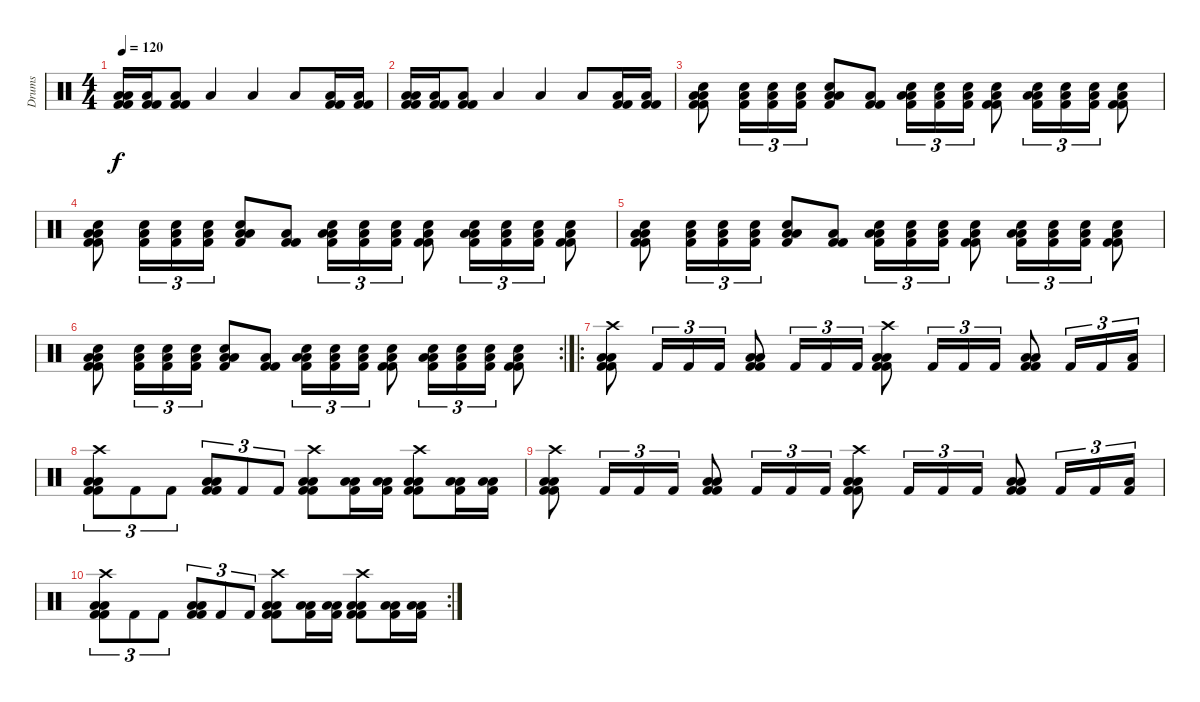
\track ("Drums" "Drums") {instrument percussion}
\staff {score}
\articulation defaults
\ts (4 4)
\tempo 120
\clef neutral
\ks c
("Low Tom (hit)" "Low Floor Tom (hit)" "Kick (hit) 2" "Kick (hit) 2").16{dy f} ("Low Floor Tom (hit)" "Kick (hit) 2" "Kick (hit) 2").16 ("Low Floor Tom (hit)" "Kick (hit) 2" "Kick (hit) 2").8 "Low Tom (hit)".4 "Low Tom (hit)".4 "Low Tom (hit)".8 ("Low Floor Tom (hit)" "Kick (hit) 2" "Kick (hit) 2").16 ("Low Floor Tom (hit)" "Kick (hit) 2" "Kick (hit) 2").16 |
("Low Tom (hit)" "Low Floor Tom (hit)" "Kick (hit) 2" "Kick (hit) 2").16 ("Low Floor Tom (hit)" "Kick (hit) 2" "Kick (hit) 2").16 ("Low Floor Tom (hit)" "Kick (hit) 2" "Kick (hit) 2").8 "Low Tom (hit)".4 "Low Tom (hit)".4 "Low Tom (hit)".8 ("Low Floor Tom (hit)" "Kick (hit) 2" "Kick (hit) 2").16 ("Low Floor Tom (hit)" "Kick (hit) 2" "Kick (hit) 2").16 |
("Snare (hit) 2" "Low Tom (hit)" "Low Floor Tom (hit)" "Kick (hit) 2" "Kick (hit) 2").8 ("Snare (hit) 2" "Low Floor Tom (hit)" "Kick (hit) 2").16{tu (3 2)} ("Snare (hit) 2" "Low Floor Tom (hit)" "Kick (hit) 2").16{tu (3 2)} ("Snare (hit) 2" "Low Floor Tom (hit)" "Kick (hit) 2").16{tu (3 2)} ("Snare (hit) 2" "Low Tom (hit)" "Low Floor Tom (hit)" "Kick (hit) 2").8 ("Low Floor Tom (hit)" "Kick (hit) 2" "Kick (hit) 2").8 ("Snare (hit) 2" "Low Tom (hit)" "Low Floor Tom (hit)" "Kick (hit) 2").16{tu (3 2)} ("Snare (hit) 2" "Low Floor Tom (hit)" "Kick (hit) 2").16{tu (3 2)} ("Snare (hit) 2" "Low Floor Tom (hit)" "Kick (hit) 2").16{tu (3 2)} ("Snare (hit) 2" "Low Floor Tom (hit)" "Kick (hit) 2" "Kick (hit) 2").8 ("Snare (hit) 2" "Low Tom (hit)" "Low Floor Tom (hit)" "Kick (hit) 2").16{tu (3 2)} ("Snare (hit) 2" "Low Floor Tom (hit)" "Kick (hit) 2").16{tu (3 2)} ("Snare (hit) 2" "Low Floor Tom (hit)" "Kick (hit) 2").16{tu (3 2)} ("Snare (hit) 2" "Low Floor Tom (hit)" "Kick (hit) 2" "Kick (hit) 2").8 |
("Snare (hit) 2" "Low Tom (hit)" "Low Floor Tom (hit)" "Kick (hit) 2" "Kick (hit) 2").8 ("Snare (hit) 2" "Low Floor Tom (hit)" "Kick (hit) 2").16{tu (3 2)} ("Snare (hit) 2" "Low Floor Tom (hit)" "Kick (hit) 2").16{tu (3 2)} ("Snare (hit) 2" "Low Floor Tom (hit)" "Kick (hit) 2").16{tu (3 2)} ("Snare (hit) 2" "Low Tom (hit)" "Low Floor Tom (hit)" "Kick (hit) 2").8 ("Low Floor Tom (hit)" "Kick (hit) 2" "Kick (hit) 2").8 ("Snare (hit) 2" "Low Tom (hit)" "Low Floor Tom (hit)" "Kick (hit) 2").16{tu (3 2)} ("Snare (hit) 2" "Low Floor Tom (hit)" "Kick (hit) 2").16{tu (3 2)} ("Snare (hit) 2" "Low Floor Tom (hit)" "Kick (hit) 2").16{tu (3 2)} ("Snare (hit) 2" "Low Floor Tom (hit)" "Kick (hit) 2" "Kick (hit) 2").8 ("Snare (hit) 2" "Low Tom (hit)" "Low Floor Tom (hit)" "Kick (hit) 2").16{tu (3 2)} ("Snare (hit) 2" "Low Floor Tom (hit)" "Kick (hit) 2").16{tu (3 2)} ("Snare (hit) 2" "Low Floor Tom (hit)" "Kick (hit) 2").16{tu (3 2)} ("Snare (hit) 2" "Low Floor Tom (hit)" "Kick (hit) 2" "Kick (hit) 2").8 |
("Snare (hit) 2" "Low Tom (hit)" "Low Floor Tom (hit)" "Kick (hit) 2" "Kick (hit) 2").8 ("Snare (hit) 2" "Low Floor Tom (hit)" "Kick (hit) 2").16{tu (3 2)} ("Snare (hit) 2" "Low Floor Tom (hit)" "Kick (hit) 2").16{tu (3 2)} ("Snare (hit) 2" "Low Floor Tom (hit)" "Kick (hit) 2").16{tu (3 2)} ("Snare (hit) 2" "Low Tom (hit)" "Low Floor Tom (hit)" "Kick (hit) 2").8 ("Low Floor Tom (hit)" "Kick (hit) 2" "Kick (hit) 2").8 ("Snare (hit) 2" "Low Tom (hit)" "Low Floor Tom (hit)" "Kick (hit) 2").16{tu (3 2)} ("Snare (hit) 2" "Low Floor Tom (hit)" "Kick (hit) 2").16{tu (3 2)} ("Snare (hit) 2" "Low Floor Tom (hit)" "Kick (hit) 2").16{tu (3 2)} ("Snare (hit) 2" "Low Floor Tom (hit)" "Kick (hit) 2" "Kick (hit) 2").8 ("Snare (hit) 2" "Low Tom (hit)" "Low Floor Tom (hit)" "Kick (hit) 2").16{tu (3 2)} ("Snare (hit) 2" "Low Floor Tom (hit)" "Kick (hit) 2").16{tu (3 2)} ("Snare (hit) 2" "Low Floor Tom (hit)" "Kick (hit) 2").16{tu (3 2)} ("Snare (hit) 2" "Low Floor Tom (hit)" "Kick (hit) 2" "Kick (hit) 2").8 |
\rc 2
("Snare (hit) 2" "Low Tom (hit)" "Low Floor Tom (hit)" "Kick (hit) 2" "Kick (hit) 2").8 ("Snare (hit) 2" "Low Floor Tom (hit)" "Kick (hit) 2").16{tu (3 2)} ("Snare (hit) 2" "Low Floor Tom (hit)" "Kick (hit) 2").16{tu (3 2)} ("Snare (hit) 2" "Low Floor Tom (hit)" "Kick (hit) 2").16{tu (3 2)} ("Snare (hit) 2" "Low Tom (hit)" "Low Floor Tom (hit)" "Kick (hit) 2").8 ("Low Floor Tom (hit)" "Kick (hit) 2" "Kick (hit) 2").8 ("Snare (hit) 2" "Low Tom (hit)" "Low Floor Tom (hit)" "Kick (hit) 2").16{tu (3 2)} ("Snare (hit) 2" "Low Floor Tom (hit)" "Kick (hit) 2").16{tu (3 2)} ("Snare (hit) 2" "Low Floor Tom (hit)" "Kick (hit) 2").16{tu (3 2)} ("Snare (hit) 2" "Low Floor Tom (hit)" "Kick (hit) 2" "Kick (hit) 2").8 ("Snare (hit) 2" "Low Tom (hit)" "Low Floor Tom (hit)" "Kick (hit) 2").16{tu (3 2)} ("Snare (hit) 2" "Low Floor Tom (hit)" "Kick (hit) 2").16{tu (3 2)} ("Snare (hit) 2" "Low Floor Tom (hit)" "Kick (hit) 2").16{tu (3 2)} ("Snare (hit) 2" "Low Floor Tom (hit)" "Kick (hit) 2" "Kick (hit) 2").8 |
\ro
("Low Tom (hit)" "Crash high (hit)" "Low Floor Tom (hit)" "Kick (hit) 2" "Kick (hit) 2").8 "Kick (hit) 2".16{tu (3 2)} "Kick (hit) 2".16{tu (3 2)} "Kick (hit) 2".16{tu (3 2)} ("Low Tom (hit)" "Low Floor Tom (hit)" "Kick (hit) 2" "Kick (hit) 2").8 "Kick (hit) 2".16{tu (3 2)} "Kick (hit) 2".16{tu (3 2)} "Kick (hit) 2".16{tu (3 2)} ("Low Tom (hit)" "Crash high (hit)" "Low Floor Tom (hit)" "Kick (hit) 2" "Kick (hit) 2").8 "Kick (hit) 2".16{tu (3 2)} "Kick (hit) 2".16{tu (3 2)} "Kick (hit) 2".16{tu (3 2)} ("Low Tom (hit)" "Low Floor Tom (hit)" "Kick (hit) 2" "Kick (hit) 2").8 "Kick (hit) 2".16{tu (3 2)} "Kick (hit) 2".16{tu (3 2)} ("Low Tom (hit)" "Kick (hit) 2").16{tu (3 2)} |
("Low Tom (hit)" "Crash high (hit)" "Low Floor Tom (hit)" "Kick (hit) 2" "Kick (hit) 2").8{tu (3 2)} "Kick (hit) 2".8{tu (3 2)} "Kick (hit) 2".8{tu (3 2)} ("Low Tom (hit)" "Low Floor Tom (hit)" "Kick (hit) 2" "Kick (hit) 2").8{tu (3 2)} "Kick (hit) 2".8{tu (3 2)} "Kick (hit) 2".8{tu (3 2)} ("Low Tom (hit)" "Crash high (hit)" "Low Floor Tom (hit)" "Kick (hit) 2" "Kick (hit) 2").8 ("Low Tom (hit)" "Low Floor Tom (hit)" "Kick (hit) 2").16 ("Low Tom (hit)" "Low Floor Tom (hit)" "Kick (hit) 2").16 ("Low Tom (hit)" "Crash high (hit)" "Low Floor Tom (hit)" "Kick (hit) 2" "Kick (hit) 2").8 ("Low Tom (hit)" "Low Floor Tom (hit)" "Kick (hit) 2").16 ("Low Tom (hit)" "Low Floor Tom (hit)" "Kick (hit) 2").16 |
("Low Tom (hit)" "Crash high (hit)" "Low Floor Tom (hit)" "Kick (hit) 2" "Kick (hit) 2").8 "Kick (hit) 2".16{tu (3 2)} "Kick (hit) 2".16{tu (3 2)} "Kick (hit) 2".16{tu (3 2)} ("Low Tom (hit)" "Low Floor Tom (hit)" "Kick (hit) 2" "Kick (hit) 2").8 "Kick (hit) 2".16{tu (3 2)} "Kick (hit) 2".16{tu (3 2)} "Kick (hit) 2".16{tu (3 2)} ("Low Tom (hit)" "Crash high (hit)" "Low Floor Tom (hit)" "Kick (hit) 2" "Kick (hit) 2").8 "Kick (hit) 2".16{tu (3 2)} "Kick (hit) 2".16{tu (3 2)} "Kick (hit) 2".16{tu (3 2)} ("Low Tom (hit)" "Low Floor Tom (hit)" "Kick (hit) 2" "Kick (hit) 2").8 "Kick (hit) 2".16{tu (3 2)} "Kick (hit) 2".16{tu (3 2)} ("Low Tom (hit)" "Kick (hit) 2").16{tu (3 2)} |
\rc 2
("Low Tom (hit)" "Crash high (hit)" "Low Floor Tom (hit)" "Kick (hit) 2" "Kick (hit) 2").8{tu (3 2)} "Kick (hit) 2".8{tu (3 2)} "Kick (hit) 2".8{tu (3 2)} ("Low Tom (hit)" "Low Floor Tom (hit)" "Kick (hit) 2" "Kick (hit) 2").8{tu (3 2)} "Kick (hit) 2".8{tu (3 2)} "Kick (hit) 2".8{tu (3 2)} ("Low Tom (hit)" "Crash high (hit)" "Low Floor Tom (hit)" "Kick (hit) 2" "Kick (hit) 2").8 ("Low Tom (hit)" "Low Floor Tom (hit)" "Kick (hit) 2").16 ("Low Tom (hit)" "Low Floor Tom (hit)" "Kick (hit) 2").16 ("Low Tom (hit)" "Crash high (hit)" "Low Floor Tom (hit)" "Kick (hit) 2" "Kick (hit) 2").8 ("Low Tom (hit)" "Low Floor Tom (hit)" "Kick (hit) 2").16 ("Low Tom (hit)" "Low Floor Tom (hit)" "Kick (hit) 2").16
